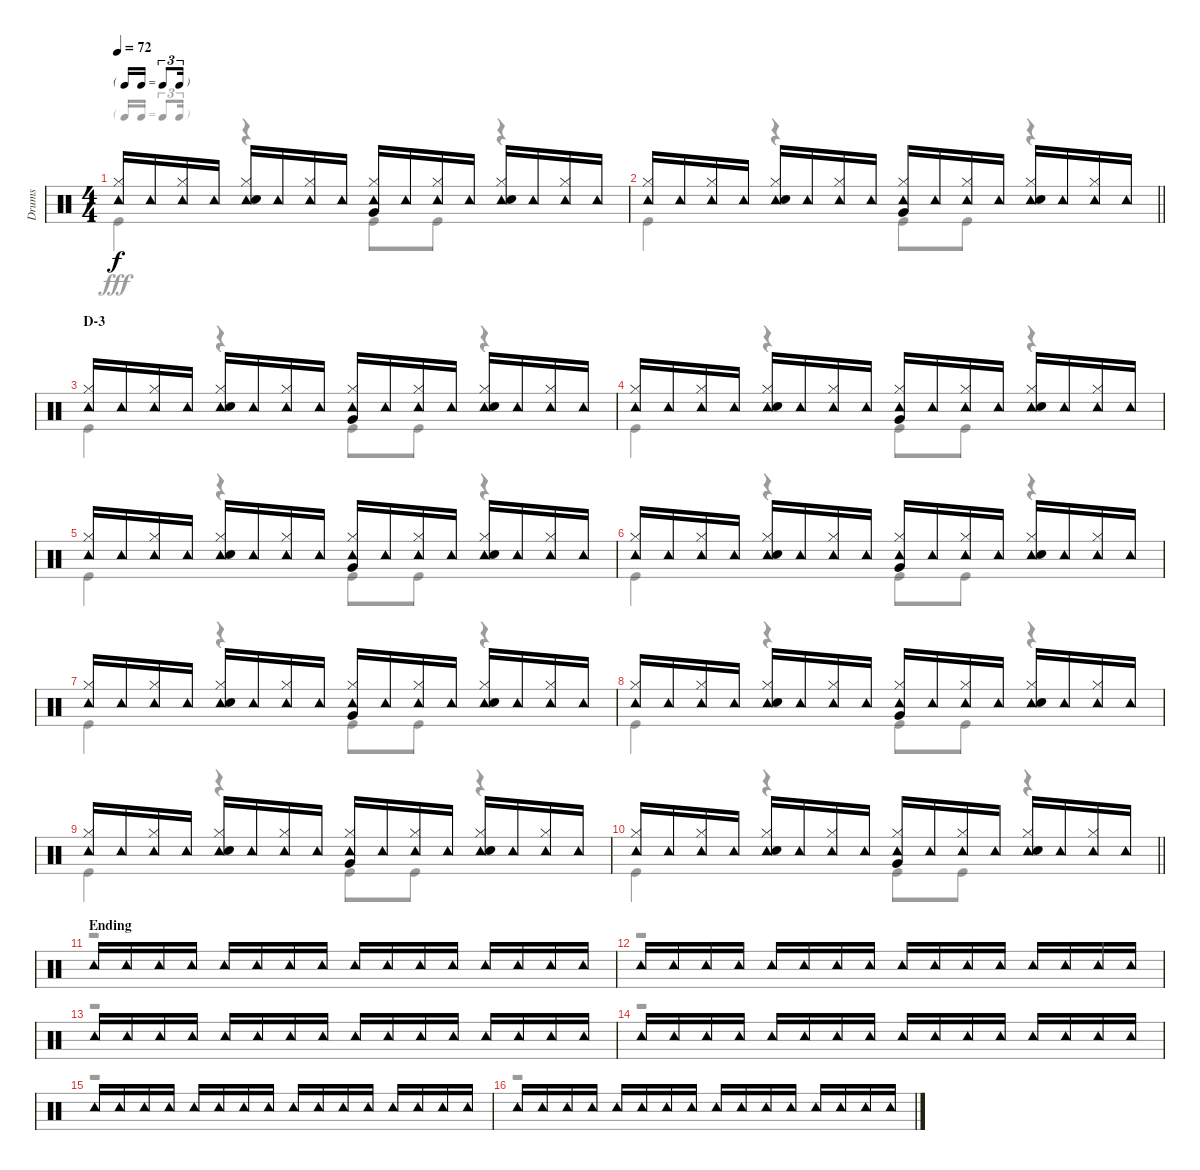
\track ("Drums" "Drums") {instrument percussion}
\staff {score}
\articulation defaults
\voice
\ts (4 4)
\tf triplet16th
\tempo 72
\clef neutral
\ks c
("Tambourine (hit)" "Hi-Hat (closed)").16{dy f} "Tambourine (hit)".16 ("Tambourine (hit)" "Hi-Hat (closed)").16 "Tambourine (hit)".16 ("Tambourine (hit)" "Hi-Hat (closed)" "Snare (hit) 2").16 "Tambourine (hit)".16 ("Tambourine (hit)" "Hi-Hat (closed)").16 "Tambourine (hit)".16 ("Tambourine (hit)" "Hi-Hat (closed)" "Very Low Tom (hit)").16 "Tambourine (hit)".16 ("Tambourine (hit)" "Hi-Hat (closed)").16 "Tambourine (hit)".16 ("Tambourine (hit)" "Hi-Hat (closed)" "Snare (hit) 2").16 "Tambourine (hit)".16 ("Tambourine (hit)" "Hi-Hat (closed)").16 "Tambourine (hit)".16 |
\barLineRight lightlight
("Tambourine (hit)" "Hi-Hat (closed)").16 "Tambourine (hit)".16 ("Tambourine (hit)" "Hi-Hat (closed)").16 "Tambourine (hit)".16 ("Tambourine (hit)" "Hi-Hat (closed)" "Snare (hit) 2").16 "Tambourine (hit)".16 ("Tambourine (hit)" "Hi-Hat (closed)").16 "Tambourine (hit)".16 ("Tambourine (hit)" "Hi-Hat (closed)" "Very Low Tom (hit)").16 "Tambourine (hit)".16 ("Tambourine (hit)" "Hi-Hat (closed)").16 "Tambourine (hit)".16 ("Tambourine (hit)" "Hi-Hat (closed)" "Snare (hit) 2").16 "Tambourine (hit)".16 ("Tambourine (hit)" "Hi-Hat (closed)").16 "Tambourine (hit)".16 |
\section ("" "D-3")
("Tambourine (hit)" "Hi-Hat (closed)").16 "Tambourine (hit)".16 ("Tambourine (hit)" "Hi-Hat (closed)").16 "Tambourine (hit)".16 ("Tambourine (hit)" "Hi-Hat (closed)" "Snare (hit) 2").16 "Tambourine (hit)".16 ("Tambourine (hit)" "Hi-Hat (closed)").16 "Tambourine (hit)".16 ("Tambourine (hit)" "Hi-Hat (closed)" "Very Low Tom (hit)").16 "Tambourine (hit)".16 ("Tambourine (hit)" "Hi-Hat (closed)").16 "Tambourine (hit)".16 ("Tambourine (hit)" "Hi-Hat (closed)" "Snare (hit) 2").16 "Tambourine (hit)".16 ("Tambourine (hit)" "Hi-Hat (closed)").16 "Tambourine (hit)".16 |
("Tambourine (hit)" "Hi-Hat (closed)").16 "Tambourine (hit)".16 ("Tambourine (hit)" "Hi-Hat (closed)").16 "Tambourine (hit)".16 ("Tambourine (hit)" "Hi-Hat (closed)" "Snare (hit) 2").16 "Tambourine (hit)".16 ("Tambourine (hit)" "Hi-Hat (closed)").16 "Tambourine (hit)".16 ("Tambourine (hit)" "Hi-Hat (closed)" "Very Low Tom (hit)").16 "Tambourine (hit)".16 ("Tambourine (hit)" "Hi-Hat (closed)").16 "Tambourine (hit)".16 ("Tambourine (hit)" "Hi-Hat (closed)" "Snare (hit) 2").16 "Tambourine (hit)".16 ("Tambourine (hit)" "Hi-Hat (closed)").16 "Tambourine (hit)".16 |
("Tambourine (hit)" "Hi-Hat (closed)").16 "Tambourine (hit)".16 ("Tambourine (hit)" "Hi-Hat (closed)").16 "Tambourine (hit)".16 ("Tambourine (hit)" "Hi-Hat (closed)" "Snare (hit) 2").16 "Tambourine (hit)".16 ("Tambourine (hit)" "Hi-Hat (closed)").16 "Tambourine (hit)".16 ("Tambourine (hit)" "Hi-Hat (closed)" "Very Low Tom (hit)").16 "Tambourine (hit)".16 ("Tambourine (hit)" "Hi-Hat (closed)").16 "Tambourine (hit)".16 ("Tambourine (hit)" "Hi-Hat (closed)" "Snare (hit) 2").16 "Tambourine (hit)".16 ("Tambourine (hit)" "Hi-Hat (closed)").16 "Tambourine (hit)".16 |
("Tambourine (hit)" "Hi-Hat (closed)").16 "Tambourine (hit)".16 ("Tambourine (hit)" "Hi-Hat (closed)").16 "Tambourine (hit)".16 ("Tambourine (hit)" "Hi-Hat (closed)" "Snare (hit) 2").16 "Tambourine (hit)".16 ("Tambourine (hit)" "Hi-Hat (closed)").16 "Tambourine (hit)".16 ("Tambourine (hit)" "Hi-Hat (closed)" "Very Low Tom (hit)").16 "Tambourine (hit)".16 ("Tambourine (hit)" "Hi-Hat (closed)").16 "Tambourine (hit)".16 ("Tambourine (hit)" "Hi-Hat (closed)" "Snare (hit) 2").16 "Tambourine (hit)".16 ("Tambourine (hit)" "Hi-Hat (closed)").16 "Tambourine (hit)".16 |
("Tambourine (hit)" "Hi-Hat (closed)").16 "Tambourine (hit)".16 ("Tambourine (hit)" "Hi-Hat (closed)").16 "Tambourine (hit)".16 ("Tambourine (hit)" "Hi-Hat (closed)" "Snare (hit) 2").16 "Tambourine (hit)".16 ("Tambourine (hit)" "Hi-Hat (closed)").16 "Tambourine (hit)".16 ("Tambourine (hit)" "Hi-Hat (closed)" "Very Low Tom (hit)").16 "Tambourine (hit)".16 ("Tambourine (hit)" "Hi-Hat (closed)").16 "Tambourine (hit)".16 ("Tambourine (hit)" "Hi-Hat (closed)" "Snare (hit) 2").16 "Tambourine (hit)".16 ("Tambourine (hit)" "Hi-Hat (closed)").16 "Tambourine (hit)".16 |
("Tambourine (hit)" "Hi-Hat (closed)").16 "Tambourine (hit)".16 ("Tambourine (hit)" "Hi-Hat (closed)").16 "Tambourine (hit)".16 ("Tambourine (hit)" "Hi-Hat (closed)" "Snare (hit) 2").16 "Tambourine (hit)".16 ("Tambourine (hit)" "Hi-Hat (closed)").16 "Tambourine (hit)".16 ("Tambourine (hit)" "Hi-Hat (closed)" "Very Low Tom (hit)").16 "Tambourine (hit)".16 ("Tambourine (hit)" "Hi-Hat (closed)").16 "Tambourine (hit)".16 ("Tambourine (hit)" "Hi-Hat (closed)" "Snare (hit) 2").16 "Tambourine (hit)".16 ("Tambourine (hit)" "Hi-Hat (closed)").16 "Tambourine (hit)".16 |
("Tambourine (hit)" "Hi-Hat (closed)").16 "Tambourine (hit)".16 ("Tambourine (hit)" "Hi-Hat (closed)").16 "Tambourine (hit)".16 ("Tambourine (hit)" "Hi-Hat (closed)" "Snare (hit) 2").16 "Tambourine (hit)".16 ("Tambourine (hit)" "Hi-Hat (closed)").16 "Tambourine (hit)".16 ("Tambourine (hit)" "Hi-Hat (closed)" "Very Low Tom (hit)").16 "Tambourine (hit)".16 ("Tambourine (hit)" "Hi-Hat (closed)").16 "Tambourine (hit)".16 ("Tambourine (hit)" "Hi-Hat (closed)" "Snare (hit) 2").16 "Tambourine (hit)".16 ("Tambourine (hit)" "Hi-Hat (closed)").16 "Tambourine (hit)".16 |
\barLineRight lightlight
("Tambourine (hit)" "Hi-Hat (closed)").16 "Tambourine (hit)".16 ("Tambourine (hit)" "Hi-Hat (closed)").16 "Tambourine (hit)".16 ("Tambourine (hit)" "Hi-Hat (closed)" "Snare (hit) 2").16 "Tambourine (hit)".16 ("Tambourine (hit)" "Hi-Hat (closed)").16 "Tambourine (hit)".16 ("Tambourine (hit)" "Hi-Hat (closed)" "Very Low Tom (hit)").16 "Tambourine (hit)".16 ("Tambourine (hit)" "Hi-Hat (closed)").16 "Tambourine (hit)".16 ("Tambourine (hit)" "Hi-Hat (closed)" "Snare (hit) 2").16 "Tambourine (hit)".16 ("Tambourine (hit)" "Hi-Hat (closed)").16 "Tambourine (hit)".16 |
\section ("" "Ending")
"Tambourine (hit)".16 "Tambourine (hit)".16 "Tambourine (hit)".16 "Tambourine (hit)".16 "Tambourine (hit)".16 "Tambourine (hit)".16 "Tambourine (hit)".16 "Tambourine (hit)".16 "Tambourine (hit)".16 "Tambourine (hit)".16 "Tambourine (hit)".16 "Tambourine (hit)".16 "Tambourine (hit)".16 "Tambourine (hit)".16 "Tambourine (hit)".16 "Tambourine (hit)".16 |
"Tambourine (hit)".16 "Tambourine (hit)".16 "Tambourine (hit)".16 "Tambourine (hit)".16 "Tambourine (hit)".16 "Tambourine (hit)".16 "Tambourine (hit)".16 "Tambourine (hit)".16 "Tambourine (hit)".16 "Tambourine (hit)".16 "Tambourine (hit)".16 "Tambourine (hit)".16 "Tambourine (hit)".16 "Tambourine (hit)".16 "Tambourine (hit)".16 "Tambourine (hit)".16 |
"Tambourine (hit)".16 "Tambourine (hit)".16 "Tambourine (hit)".16 "Tambourine (hit)".16 "Tambourine (hit)".16 "Tambourine (hit)".16 "Tambourine (hit)".16 "Tambourine (hit)".16 "Tambourine (hit)".16 "Tambourine (hit)".16 "Tambourine (hit)".16 "Tambourine (hit)".16 "Tambourine (hit)".16 "Tambourine (hit)".16 "Tambourine (hit)".16 "Tambourine (hit)".16 |
"Tambourine (hit)".16 "Tambourine (hit)".16 "Tambourine (hit)".16 "Tambourine (hit)".16 "Tambourine (hit)".16 "Tambourine (hit)".16 "Tambourine (hit)".16 "Tambourine (hit)".16 "Tambourine (hit)".16 "Tambourine (hit)".16 "Tambourine (hit)".16 "Tambourine (hit)".16 "Tambourine (hit)".16 "Tambourine (hit)".16 "Tambourine (hit)".16 "Tambourine (hit)".16 |
"Tambourine (hit)".16 "Tambourine (hit)".16 "Tambourine (hit)".16 "Tambourine (hit)".16 "Tambourine (hit)".16 "Tambourine (hit)".16 "Tambourine (hit)".16 "Tambourine (hit)".16 "Tambourine (hit)".16 "Tambourine (hit)".16 "Tambourine (hit)".16 "Tambourine (hit)".16 "Tambourine (hit)".16 "Tambourine (hit)".16 "Tambourine (hit)".16 "Tambourine (hit)".16 |
"Tambourine (hit)".16 "Tambourine (hit)".16 "Tambourine (hit)".16 "Tambourine (hit)".16 "Tambourine (hit)".16 "Tambourine (hit)".16 "Tambourine (hit)".16 "Tambourine (hit)".16 "Tambourine (hit)".16 "Tambourine (hit)".16 "Tambourine (hit)".16 "Tambourine (hit)".16 "Tambourine (hit)".16 "Tambourine (hit)".16 "Tambourine (hit)".16 "Tambourine (hit)".16
\voice
\clef neutral
\ottava regular
\simile none
\ks c "Kick (hit)".4{dy fff}
r.4 "Kick (hit)".8 "Kick (hit)".8 r.4 |
\barLineRight lightlight "Kick (hit)".4
r.4 "Kick (hit)".8 "Kick (hit)".8 r.4 |
"Kick (hit)".4 r.4 "Kick (hit)".8 "Kick (hit)".8 r.4 |
"Kick (hit)".4 r.4 "Kick (hit)".8 "Kick (hit)".8 r.4 |
"Kick (hit)".4 r.4 "Kick (hit)".8 "Kick (hit)".8 r.4 |
"Kick (hit)".4 r.4 "Kick (hit)".8 "Kick (hit)".8 r.4 |
"Kick (hit)".4 r.4 "Kick (hit)".8 "Kick (hit)".8 r.4 |
"Kick (hit)".4 r.4 "Kick (hit)".8 "Kick (hit)".8 r.4 |
"Kick (hit)".4 r.4 "Kick (hit)".8 "Kick (hit)".8 r.4 |
\barLineRight lightlight "Kick (hit)".4
r.4 "Kick (hit)".8 "Kick (hit)".8 r.4 |
r.1 |
r.1 |
r.1 |
r.1 |
r.1 |
r.1
